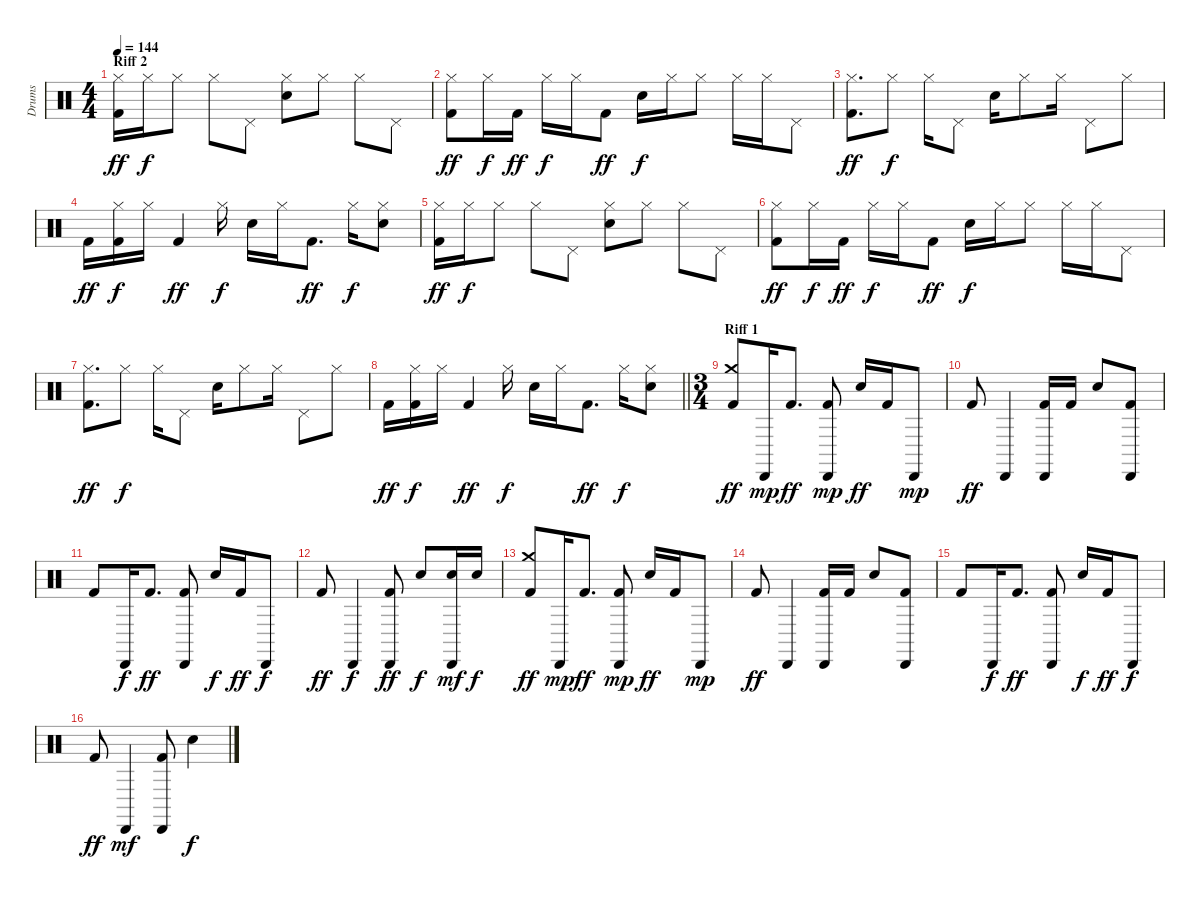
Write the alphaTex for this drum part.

\track ("Drums" "Drums") {instrument percussion}
\staff {score}
\articulation defaults
\ts (4 4)
\section ("" "Riff 2")
\tempo 144
\clef neutral
\ks c
("Kick (hit) 2" "Hi-Hat (closed)").16{dy ff} "Hi-Hat (closed)".16{dy f} "Hi-Hat (closed)".8 "Hi-Hat (closed)".8 "Pedal Hi-Hat (hit)".8 ("Snare (hit) 2" "Hi-Hat (closed)").8 "Hi-Hat (closed)".8 "Hi-Hat (closed)".8 "Pedal Hi-Hat (hit)".8 |
("Kick (hit) 2" "Hi-Hat (closed)").8{dy ff} "Hi-Hat (closed)".16{dy f} "Kick (hit) 2".16{dy ff} "Hi-Hat (closed)".16{dy f} "Hi-Hat (closed)".16 "Kick (hit) 2".8{dy ff} "Snare (hit) 2".16{dy f} "Hi-Hat (closed)".16 "Hi-Hat (closed)".8 "Hi-Hat (closed)".16 "Hi-Hat (closed)".16 "Pedal Hi-Hat (hit)".8 |
("Kick (hit) 2" "Hi-Hat (closed)").8{d dy ff} "Hi-Hat (closed)".8{dy f} "Hi-Hat (closed)".16 "Pedal Hi-Hat (hit)".8 "Snare (hit) 2".16 "Hi-Hat (closed)".8 "Hi-Hat (closed)".16 "Pedal Hi-Hat (hit)".8 "Hi-Hat (closed)".8 |
"Kick (hit) 2".16{dy ff} ("Kick (hit) 2" "Hi-Hat (closed)").16{dy f} "Hi-Hat (closed)".16 "Kick (hit) 2".4{dy ff} "Hi-Hat (closed)".16{dy f} "Snare (hit) 2".16 "Hi-Hat (closed)".16 "Kick (hit) 2".8{d dy ff} "Hi-Hat (closed)".16{dy f} ("Snare (hit) 2" "Hi-Hat (closed)").8 |
("Kick (hit) 2" "Hi-Hat (closed)").16{dy ff} "Hi-Hat (closed)".16{dy f} "Hi-Hat (closed)".8 "Hi-Hat (closed)".8 "Pedal Hi-Hat (hit)".8 ("Snare (hit) 2" "Hi-Hat (closed)").8 "Hi-Hat (closed)".8 "Hi-Hat (closed)".8 "Pedal Hi-Hat (hit)".8 |
("Kick (hit) 2" "Hi-Hat (closed)").8{dy ff} "Hi-Hat (closed)".16{dy f} "Kick (hit) 2".16{dy ff} "Hi-Hat (closed)".16{dy f} "Hi-Hat (closed)".16 "Kick (hit) 2".8{dy ff} "Snare (hit) 2".16{dy f} "Hi-Hat (closed)".16 "Hi-Hat (closed)".8 "Hi-Hat (closed)".16 "Hi-Hat (closed)".16 "Pedal Hi-Hat (hit)".8 |
("Kick (hit) 2" "Hi-Hat (closed)").8{d dy ff} "Hi-Hat (closed)".8{dy f} "Hi-Hat (closed)".16 "Pedal Hi-Hat (hit)".8 "Snare (hit) 2".16 "Hi-Hat (closed)".8 "Hi-Hat (closed)".16 "Pedal Hi-Hat (hit)".8 "Hi-Hat (closed)".8 |
\barLineRight lightlight "Kick (hit) 2".16{dy ff}
("Kick (hit) 2" "Hi-Hat (closed)").16{dy f} "Hi-Hat (closed)".16 "Kick (hit) 2".4{dy ff} "Hi-Hat (closed)".16{dy f} "Snare (hit) 2".16 "Hi-Hat (closed)".16 "Kick (hit) 2".8{d dy ff} "Hi-Hat (closed)".16{dy f} ("Snare (hit) 2" "Hi-Hat (closed)").8 |
\ts (3 4)
\section ("" "Riff 1")
("Kick (hit) 2" "Crash medium (hit)").8{dy ff} "Cabasa (hit)".16{dy mp} "Kick (hit) 2".8{d dy ff} ("Kick (hit) 2" "Cabasa (hit)").8{dy mp} "Snare (hit) 2".16{dy ff} "Kick (hit) 2".16 "Cabasa (hit)".8{dy mp} |
"Kick (hit) 2".8{dy ff} "Cabasa (hit)".4 ("Kick (hit) 2" "Cabasa (hit)").16 "Kick (hit) 2".16 "Snare (hit) 2".8 ("Kick (hit) 2" "Cabasa (hit)").8 |
"Kick (hit) 2".8 "Cabasa (hit)".16{dy f} "Kick (hit) 2".8{d dy ff} ("Kick (hit) 2" "Cabasa (hit)").8 "Snare (hit) 2".16{dy f} "Kick (hit) 2".16{dy ff} "Cabasa (hit)".8{dy f} |
"Kick (hit) 2".8{dy ff} "Cabasa (hit)".4{dy f} ("Kick (hit) 2" "Cabasa (hit)").8{dy ff} "Snare (hit) 2".8{dy f} ("Snare (hit) 2" "Cabasa (hit)").16{dy mf} "Snare (hit) 2".16{dy f} |
("Kick (hit) 2" "Crash medium (hit)").8{dy ff} "Cabasa (hit)".16{dy mp} "Kick (hit) 2".8{d dy ff} ("Kick (hit) 2" "Cabasa (hit)").8{dy mp} "Snare (hit) 2".16{dy ff} "Kick (hit) 2".16 "Cabasa (hit)".8{dy mp} |
"Kick (hit) 2".8{dy ff} "Cabasa (hit)".4 ("Kick (hit) 2" "Cabasa (hit)").16 "Kick (hit) 2".16 "Snare (hit) 2".8 ("Kick (hit) 2" "Cabasa (hit)").8 |
"Kick (hit) 2".8 "Cabasa (hit)".16{dy f} "Kick (hit) 2".8{d dy ff} ("Kick (hit) 2" "Cabasa (hit)").8 "Snare (hit) 2".16{dy f} "Kick (hit) 2".16{dy ff} "Cabasa (hit)".8{dy f} |
"Kick (hit) 2".8{dy ff} "Cabasa (hit)".4{dy mf} ("Kick (hit) 2" "Cabasa (hit)").8 "Snare (hit) 2".4{dy f}
